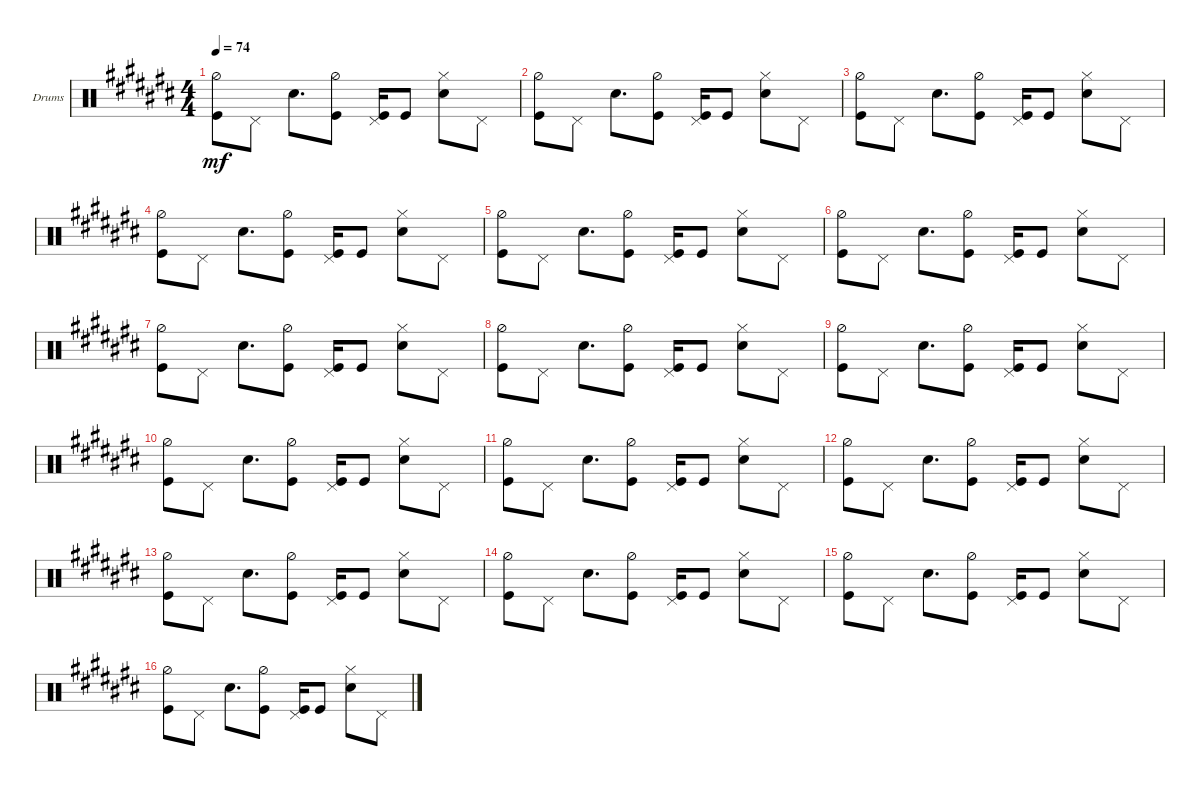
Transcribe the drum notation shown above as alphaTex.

\defaultSystemsLayout 4
\bracketExtendMode groupsimilarinstruments
\firstSystemTrackNameOrientation horizontal
\otherSystemsTrackNameOrientation horizontal
\track ("Drum" "Drums") {multiBarRest instrument percussion}
\staff {score}
\articulation defaults
\ts (4 4)
\tempo 74
\clef neutral
\ks c#
("Kick (hit)" "Hi-Hat (half)").8{dy mf} "Pedal Hi-Hat (hit)".8 "Snare (hit) 2".8{d} ("Kick (hit)" "Hi-Hat (half)").8 ("Kick (hit)" "Pedal Hi-Hat (hit)").16 "Kick (hit)".8 ("Snare (hit) 2" "Hi-Hat (closed)").8 "Pedal Hi-Hat (hit)".8 |
("Kick (hit)" "Hi-Hat (half)").8 "Pedal Hi-Hat (hit)".8 "Snare (hit) 2".8{d} ("Kick (hit)" "Hi-Hat (half)").8 ("Kick (hit)" "Pedal Hi-Hat (hit)").16 "Kick (hit)".8 ("Snare (hit) 2" "Hi-Hat (closed)").8 "Pedal Hi-Hat (hit)".8 |
("Kick (hit)" "Hi-Hat (half)").8 "Pedal Hi-Hat (hit)".8 "Snare (hit) 2".8{d} ("Kick (hit)" "Hi-Hat (half)").8 ("Kick (hit)" "Pedal Hi-Hat (hit)").16 "Kick (hit)".8 ("Snare (hit) 2" "Hi-Hat (closed)").8 "Pedal Hi-Hat (hit)".8 |
("Kick (hit)" "Hi-Hat (half)").8 "Pedal Hi-Hat (hit)".8 "Snare (hit) 2".8{d} ("Kick (hit)" "Hi-Hat (half)").8 ("Kick (hit)" "Pedal Hi-Hat (hit)").16 "Kick (hit)".8 ("Snare (hit) 2" "Hi-Hat (closed)").8 "Pedal Hi-Hat (hit)".8 |
("Kick (hit)" "Hi-Hat (half)").8 "Pedal Hi-Hat (hit)".8 "Snare (hit) 2".8{d} ("Kick (hit)" "Hi-Hat (half)").8 ("Kick (hit)" "Pedal Hi-Hat (hit)").16 "Kick (hit)".8 ("Snare (hit) 2" "Hi-Hat (closed)").8 "Pedal Hi-Hat (hit)".8 |
("Kick (hit)" "Hi-Hat (half)").8 "Pedal Hi-Hat (hit)".8 "Snare (hit) 2".8{d} ("Kick (hit)" "Hi-Hat (half)").8 ("Kick (hit)" "Pedal Hi-Hat (hit)").16 "Kick (hit)".8 ("Snare (hit) 2" "Hi-Hat (closed)").8 "Pedal Hi-Hat (hit)".8 |
("Kick (hit)" "Hi-Hat (half)").8 "Pedal Hi-Hat (hit)".8 "Snare (hit) 2".8{d} ("Kick (hit)" "Hi-Hat (half)").8 ("Kick (hit)" "Pedal Hi-Hat (hit)").16 "Kick (hit)".8 ("Snare (hit) 2" "Hi-Hat (closed)").8 "Pedal Hi-Hat (hit)".8 |
("Kick (hit)" "Hi-Hat (half)").8 "Pedal Hi-Hat (hit)".8 "Snare (hit) 2".8{d} ("Kick (hit)" "Hi-Hat (half)").8 ("Kick (hit)" "Pedal Hi-Hat (hit)").16 "Kick (hit)".8 ("Snare (hit) 2" "Hi-Hat (closed)").8 "Pedal Hi-Hat (hit)".8 |
("Kick (hit)" "Hi-Hat (half)").8 "Pedal Hi-Hat (hit)".8 "Snare (hit) 2".8{d} ("Kick (hit)" "Hi-Hat (half)").8 ("Kick (hit)" "Pedal Hi-Hat (hit)").16 "Kick (hit)".8 ("Snare (hit) 2" "Hi-Hat (closed)").8 "Pedal Hi-Hat (hit)".8 |
("Kick (hit)" "Hi-Hat (half)").8 "Pedal Hi-Hat (hit)".8 "Snare (hit) 2".8{d} ("Kick (hit)" "Hi-Hat (half)").8 ("Kick (hit)" "Pedal Hi-Hat (hit)").16 "Kick (hit)".8 ("Snare (hit) 2" "Hi-Hat (closed)").8 "Pedal Hi-Hat (hit)".8 |
("Kick (hit)" "Hi-Hat (half)").8 "Pedal Hi-Hat (hit)".8 "Snare (hit) 2".8{d} ("Kick (hit)" "Hi-Hat (half)").8 ("Kick (hit)" "Pedal Hi-Hat (hit)").16 "Kick (hit)".8 ("Snare (hit) 2" "Hi-Hat (closed)").8 "Pedal Hi-Hat (hit)".8 |
("Kick (hit)" "Hi-Hat (half)").8 "Pedal Hi-Hat (hit)".8 "Snare (hit) 2".8{d} ("Kick (hit)" "Hi-Hat (half)").8 ("Kick (hit)" "Pedal Hi-Hat (hit)").16 "Kick (hit)".8 ("Snare (hit) 2" "Hi-Hat (closed)").8 "Pedal Hi-Hat (hit)".8 |
("Kick (hit)" "Hi-Hat (half)").8 "Pedal Hi-Hat (hit)".8 "Snare (hit) 2".8{d} ("Kick (hit)" "Hi-Hat (half)").8 ("Kick (hit)" "Pedal Hi-Hat (hit)").16 "Kick (hit)".8 ("Snare (hit) 2" "Hi-Hat (closed)").8 "Pedal Hi-Hat (hit)".8 |
("Kick (hit)" "Hi-Hat (half)").8 "Pedal Hi-Hat (hit)".8 "Snare (hit) 2".8{d} ("Kick (hit)" "Hi-Hat (half)").8 ("Kick (hit)" "Pedal Hi-Hat (hit)").16 "Kick (hit)".8 ("Snare (hit) 2" "Hi-Hat (closed)").8 "Pedal Hi-Hat (hit)".8 |
("Kick (hit)" "Hi-Hat (half)").8 "Pedal Hi-Hat (hit)".8 "Snare (hit) 2".8{d} ("Kick (hit)" "Hi-Hat (half)").8 ("Kick (hit)" "Pedal Hi-Hat (hit)").16 "Kick (hit)".8 ("Snare (hit) 2" "Hi-Hat (closed)").8 "Pedal Hi-Hat (hit)".8 |
("Kick (hit)" "Hi-Hat (half)").8 "Pedal Hi-Hat (hit)".8 "Snare (hit) 2".8{d} ("Kick (hit)" "Hi-Hat (half)").8 ("Kick (hit)" "Pedal Hi-Hat (hit)").16 "Kick (hit)".8 ("Snare (hit) 2" "Hi-Hat (closed)").8 "Pedal Hi-Hat (hit)".8
